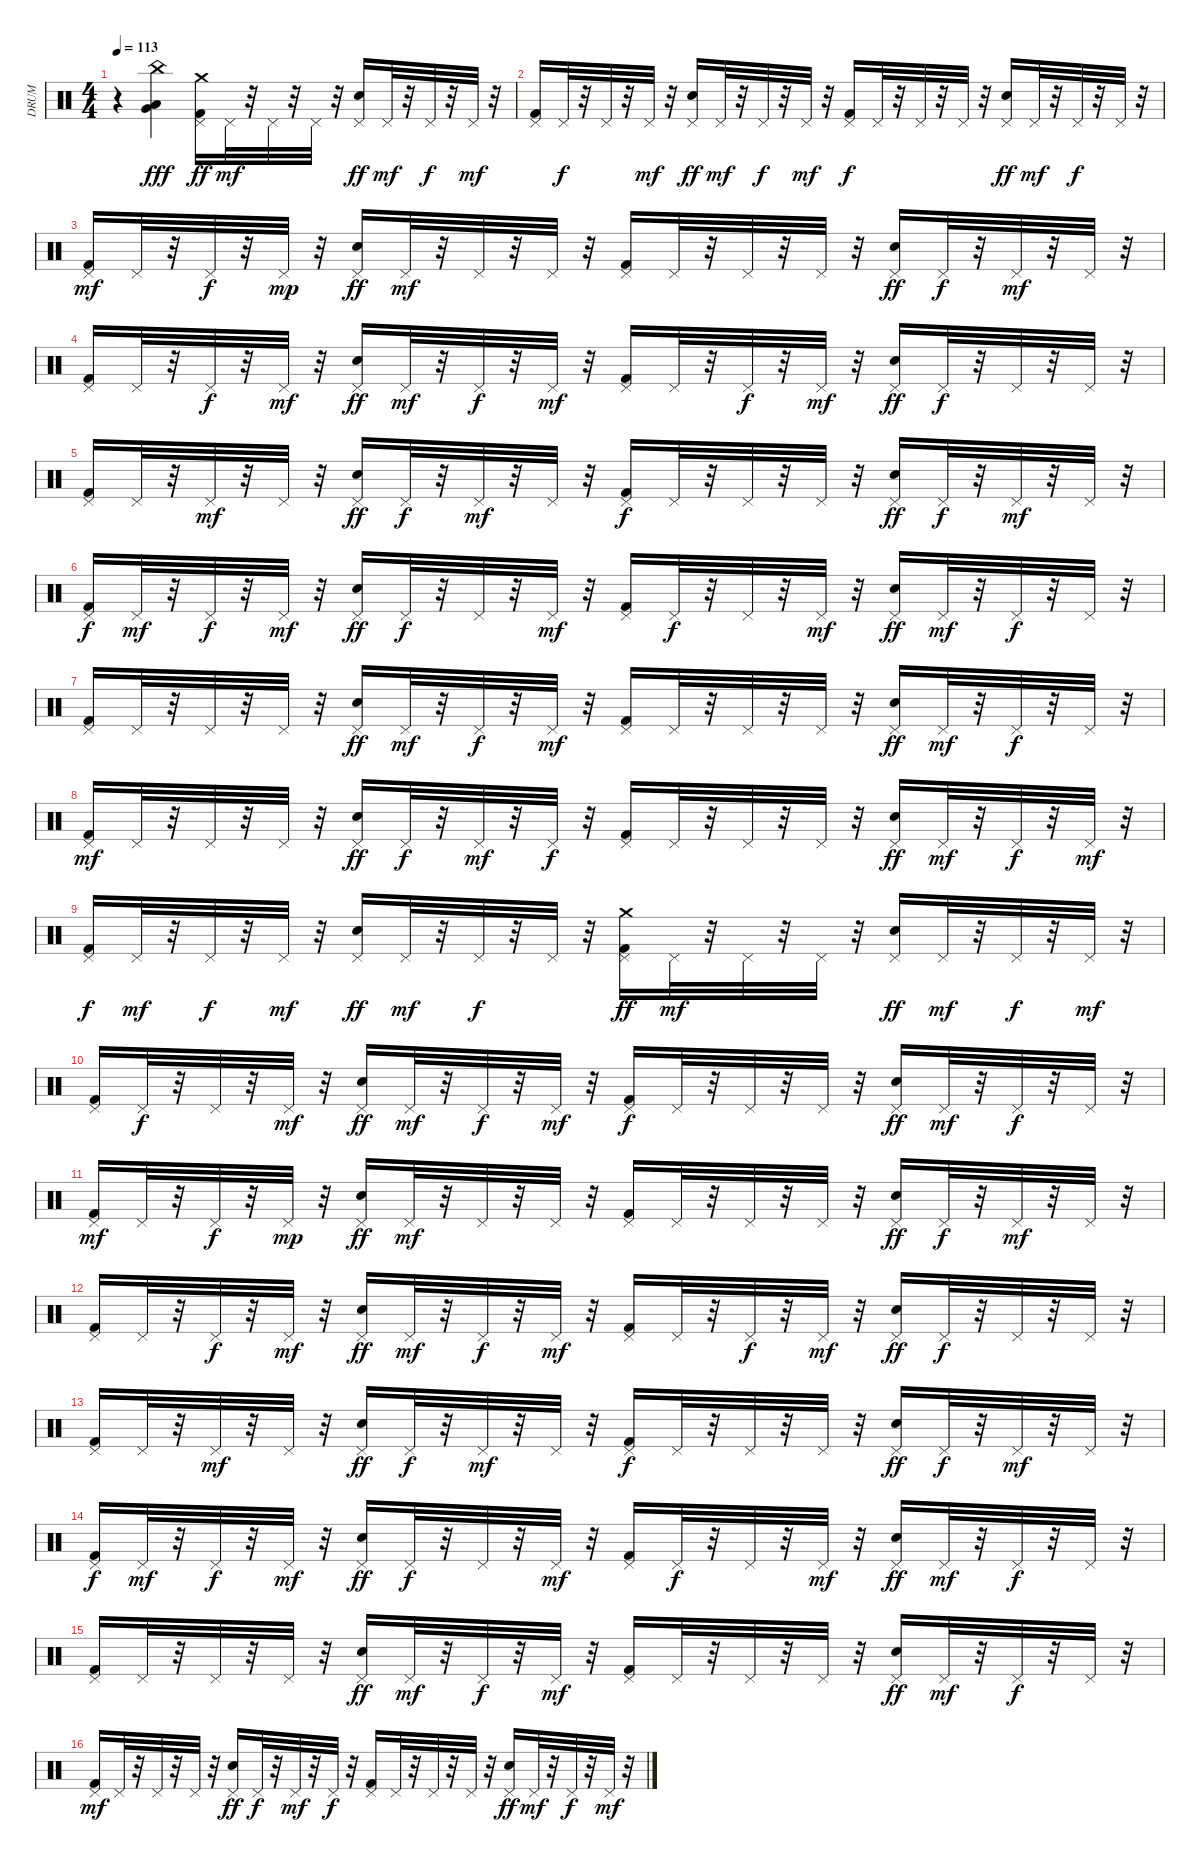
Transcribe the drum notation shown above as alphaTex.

\track ("DRUM" "DRUM") {instrument percussion}
\staff {score}
\articulation defaults
\ts (4 4)
\tempo 113
\clef neutral
\ks c
r.4{dy f} ("Very Low Tom (hit)" "Low Floor Tom (hit)" "China (hit)").4{dy fff} ("Crash medium (hit)" "Pedal Hi-Hat (hit)" "Kick (hit) 2").16{dy ff} "Pedal Hi-Hat (hit)".32{dy mf} r.32 "Pedal Hi-Hat (hit)".32 r.32 "Pedal Hi-Hat (hit)".32 r.32 ("Pedal Hi-Hat (hit)" "Snare (hit) 2").16{dy ff} "Pedal Hi-Hat (hit)".32{dy mf} r.32 "Pedal Hi-Hat (hit)".32{dy f} r.32 "Pedal Hi-Hat (hit)".32{dy mf} r.32 |
("Pedal Hi-Hat (hit)" "Kick (hit) 2").16 "Pedal Hi-Hat (hit)".32{dy f} r.32 "Pedal Hi-Hat (hit)".32 r.32 "Pedal Hi-Hat (hit)".32{dy mf} r.32 ("Pedal Hi-Hat (hit)" "Snare (hit) 2").16{dy ff} "Pedal Hi-Hat (hit)".32{dy mf} r.32 "Pedal Hi-Hat (hit)".32{dy f} r.32 "Pedal Hi-Hat (hit)".32{dy mf} r.32 ("Pedal Hi-Hat (hit)" "Kick (hit) 2").16{dy f} "Pedal Hi-Hat (hit)".32 r.32 "Pedal Hi-Hat (hit)".32 r.32 "Pedal Hi-Hat (hit)".32 r.32 ("Pedal Hi-Hat (hit)" "Snare (hit) 2").16{dy ff} "Pedal Hi-Hat (hit)".32{dy mf} r.32 "Pedal Hi-Hat (hit)".32{dy f} r.32 "Pedal Hi-Hat (hit)".32 r.32 |
("Pedal Hi-Hat (hit)" "Kick (hit) 2").16{dy mf} "Pedal Hi-Hat (hit)".32 r.32 "Pedal Hi-Hat (hit)".32{dy f} r.32 "Pedal Hi-Hat (hit)".32{dy mp} r.32 ("Pedal Hi-Hat (hit)" "Snare (hit) 2").16{dy ff} "Pedal Hi-Hat (hit)".32{dy mf} r.32 "Pedal Hi-Hat (hit)".32 r.32 "Pedal Hi-Hat (hit)".32 r.32 ("Pedal Hi-Hat (hit)" "Kick (hit) 2").16 "Pedal Hi-Hat (hit)".32 r.32 "Pedal Hi-Hat (hit)".32 r.32 "Pedal Hi-Hat (hit)".32 r.32 ("Pedal Hi-Hat (hit)" "Snare (hit) 2").16{dy ff} "Pedal Hi-Hat (hit)".32{dy f} r.32 "Pedal Hi-Hat (hit)".32{dy mf} r.32 "Pedal Hi-Hat (hit)".32 r.32 |
("Pedal Hi-Hat (hit)" "Kick (hit) 2").16 "Pedal Hi-Hat (hit)".32 r.32 "Pedal Hi-Hat (hit)".32{dy f} r.32 "Pedal Hi-Hat (hit)".32{dy mf} r.32 ("Pedal Hi-Hat (hit)" "Snare (hit) 2").16{dy ff} "Pedal Hi-Hat (hit)".32{dy mf} r.32 "Pedal Hi-Hat (hit)".32{dy f} r.32 "Pedal Hi-Hat (hit)".32{dy mf} r.32 ("Pedal Hi-Hat (hit)" "Kick (hit) 2").16 "Pedal Hi-Hat (hit)".32 r.32 "Pedal Hi-Hat (hit)".32{dy f} r.32 "Pedal Hi-Hat (hit)".32{dy mf} r.32 ("Pedal Hi-Hat (hit)" "Snare (hit) 2").16{dy ff} "Pedal Hi-Hat (hit)".32{dy f} r.32 "Pedal Hi-Hat (hit)".32 r.32 "Pedal Hi-Hat (hit)".32 r.32 |
("Pedal Hi-Hat (hit)" "Kick (hit) 2").16 "Pedal Hi-Hat (hit)".32 r.32 "Pedal Hi-Hat (hit)".32{dy mf} r.32 "Pedal Hi-Hat (hit)".32 r.32 ("Pedal Hi-Hat (hit)" "Snare (hit) 2").16{dy ff} "Pedal Hi-Hat (hit)".32{dy f} r.32 "Pedal Hi-Hat (hit)".32{dy mf} r.32 "Pedal Hi-Hat (hit)".32 r.32 ("Pedal Hi-Hat (hit)" "Kick (hit) 2").16{dy f} "Pedal Hi-Hat (hit)".32 r.32 "Pedal Hi-Hat (hit)".32 r.32 "Pedal Hi-Hat (hit)".32 r.32 ("Pedal Hi-Hat (hit)" "Snare (hit) 2").16{dy ff} "Pedal Hi-Hat (hit)".32{dy f} r.32 "Pedal Hi-Hat (hit)".32{dy mf} r.32 "Pedal Hi-Hat (hit)".32 r.32 |
("Pedal Hi-Hat (hit)" "Kick (hit) 2").16{dy f} "Pedal Hi-Hat (hit)".32{dy mf} r.32 "Pedal Hi-Hat (hit)".32{dy f} r.32 "Pedal Hi-Hat (hit)".32{dy mf} r.32 ("Pedal Hi-Hat (hit)" "Snare (hit) 2").16{dy ff} "Pedal Hi-Hat (hit)".32{dy f} r.32 "Pedal Hi-Hat (hit)".32 r.32 "Pedal Hi-Hat (hit)".32{dy mf} r.32 ("Pedal Hi-Hat (hit)" "Kick (hit) 2").16 "Pedal Hi-Hat (hit)".32{dy f} r.32 "Pedal Hi-Hat (hit)".32 r.32 "Pedal Hi-Hat (hit)".32{dy mf} r.32 ("Pedal Hi-Hat (hit)" "Snare (hit) 2").16{dy ff} "Pedal Hi-Hat (hit)".32{dy mf} r.32 "Pedal Hi-Hat (hit)".32{dy f} r.32 "Pedal Hi-Hat (hit)".32 r.32 |
("Pedal Hi-Hat (hit)" "Kick (hit) 2").16 "Pedal Hi-Hat (hit)".32 r.32 "Pedal Hi-Hat (hit)".32 r.32 "Pedal Hi-Hat (hit)".32 r.32 ("Pedal Hi-Hat (hit)" "Snare (hit) 2").16{dy ff} "Pedal Hi-Hat (hit)".32{dy mf} r.32 "Pedal Hi-Hat (hit)".32{dy f} r.32 "Pedal Hi-Hat (hit)".32{dy mf} r.32 ("Pedal Hi-Hat (hit)" "Kick (hit) 2").16 "Pedal Hi-Hat (hit)".32 r.32 "Pedal Hi-Hat (hit)".32 r.32 "Pedal Hi-Hat (hit)".32 r.32 ("Pedal Hi-Hat (hit)" "Snare (hit) 2").16{dy ff} "Pedal Hi-Hat (hit)".32{dy mf} r.32 "Pedal Hi-Hat (hit)".32{dy f} r.32 "Pedal Hi-Hat (hit)".32 r.32 |
("Pedal Hi-Hat (hit)" "Kick (hit) 2").16{dy mf} "Pedal Hi-Hat (hit)".32 r.32 "Pedal Hi-Hat (hit)".32 r.32 "Pedal Hi-Hat (hit)".32 r.32 ("Pedal Hi-Hat (hit)" "Snare (hit) 2").16{dy ff} "Pedal Hi-Hat (hit)".32{dy f} r.32 "Pedal Hi-Hat (hit)".32{dy mf} r.32 "Pedal Hi-Hat (hit)".32{dy f} r.32 ("Pedal Hi-Hat (hit)" "Kick (hit) 2").16 "Pedal Hi-Hat (hit)".32 r.32 "Pedal Hi-Hat (hit)".32 r.32 "Pedal Hi-Hat (hit)".32 r.32 ("Pedal Hi-Hat (hit)" "Snare (hit) 2").16{dy ff} "Pedal Hi-Hat (hit)".32{dy mf} r.32 "Pedal Hi-Hat (hit)".32{dy f} r.32 "Pedal Hi-Hat (hit)".32{dy mf} r.32 |
("Pedal Hi-Hat (hit)" "Kick (hit) 2").16{dy f} "Pedal Hi-Hat (hit)".32{dy mf} r.32 "Pedal Hi-Hat (hit)".32{dy f} r.32 "Pedal Hi-Hat (hit)".32{dy mf} r.32 ("Pedal Hi-Hat (hit)" "Snare (hit) 2").16{dy ff} "Pedal Hi-Hat (hit)".32{dy mf} r.32 "Pedal Hi-Hat (hit)".32{dy f} r.32 "Pedal Hi-Hat (hit)".32 r.32 ("Crash medium (hit)" "Pedal Hi-Hat (hit)" "Kick (hit) 2").16{dy ff} "Pedal Hi-Hat (hit)".32{dy mf} r.32 "Pedal Hi-Hat (hit)".32 r.32 "Pedal Hi-Hat (hit)".32 r.32 ("Pedal Hi-Hat (hit)" "Snare (hit) 2").16{dy ff} "Pedal Hi-Hat (hit)".32{dy mf} r.32 "Pedal Hi-Hat (hit)".32{dy f} r.32 "Pedal Hi-Hat (hit)".32{dy mf} r.32 |
("Pedal Hi-Hat (hit)" "Kick (hit) 2").16 "Pedal Hi-Hat (hit)".32{dy f} r.32 "Pedal Hi-Hat (hit)".32 r.32 "Pedal Hi-Hat (hit)".32{dy mf} r.32 ("Pedal Hi-Hat (hit)" "Snare (hit) 2").16{dy ff} "Pedal Hi-Hat (hit)".32{dy mf} r.32 "Pedal Hi-Hat (hit)".32{dy f} r.32 "Pedal Hi-Hat (hit)".32{dy mf} r.32 ("Pedal Hi-Hat (hit)" "Kick (hit) 2").16{dy f} "Pedal Hi-Hat (hit)".32 r.32 "Pedal Hi-Hat (hit)".32 r.32 "Pedal Hi-Hat (hit)".32 r.32 ("Pedal Hi-Hat (hit)" "Snare (hit) 2").16{dy ff} "Pedal Hi-Hat (hit)".32{dy mf} r.32 "Pedal Hi-Hat (hit)".32{dy f} r.32 "Pedal Hi-Hat (hit)".32 r.32 |
("Pedal Hi-Hat (hit)" "Kick (hit) 2").16{dy mf} "Pedal Hi-Hat (hit)".32 r.32 "Pedal Hi-Hat (hit)".32{dy f} r.32 "Pedal Hi-Hat (hit)".32{dy mp} r.32 ("Pedal Hi-Hat (hit)" "Snare (hit) 2").16{dy ff} "Pedal Hi-Hat (hit)".32{dy mf} r.32 "Pedal Hi-Hat (hit)".32 r.32 "Pedal Hi-Hat (hit)".32 r.32 ("Pedal Hi-Hat (hit)" "Kick (hit) 2").16 "Pedal Hi-Hat (hit)".32 r.32 "Pedal Hi-Hat (hit)".32 r.32 "Pedal Hi-Hat (hit)".32 r.32 ("Pedal Hi-Hat (hit)" "Snare (hit) 2").16{dy ff} "Pedal Hi-Hat (hit)".32{dy f} r.32 "Pedal Hi-Hat (hit)".32{dy mf} r.32 "Pedal Hi-Hat (hit)".32 r.32 |
("Pedal Hi-Hat (hit)" "Kick (hit) 2").16 "Pedal Hi-Hat (hit)".32 r.32 "Pedal Hi-Hat (hit)".32{dy f} r.32 "Pedal Hi-Hat (hit)".32{dy mf} r.32 ("Pedal Hi-Hat (hit)" "Snare (hit) 2").16{dy ff} "Pedal Hi-Hat (hit)".32{dy mf} r.32 "Pedal Hi-Hat (hit)".32{dy f} r.32 "Pedal Hi-Hat (hit)".32{dy mf} r.32 ("Pedal Hi-Hat (hit)" "Kick (hit) 2").16 "Pedal Hi-Hat (hit)".32 r.32 "Pedal Hi-Hat (hit)".32{dy f} r.32 "Pedal Hi-Hat (hit)".32{dy mf} r.32 ("Pedal Hi-Hat (hit)" "Snare (hit) 2").16{dy ff} "Pedal Hi-Hat (hit)".32{dy f} r.32 "Pedal Hi-Hat (hit)".32 r.32 "Pedal Hi-Hat (hit)".32 r.32 |
("Pedal Hi-Hat (hit)" "Kick (hit) 2").16 "Pedal Hi-Hat (hit)".32 r.32 "Pedal Hi-Hat (hit)".32{dy mf} r.32 "Pedal Hi-Hat (hit)".32 r.32 ("Pedal Hi-Hat (hit)" "Snare (hit) 2").16{dy ff} "Pedal Hi-Hat (hit)".32{dy f} r.32 "Pedal Hi-Hat (hit)".32{dy mf} r.32 "Pedal Hi-Hat (hit)".32 r.32 ("Pedal Hi-Hat (hit)" "Kick (hit) 2").16{dy f} "Pedal Hi-Hat (hit)".32 r.32 "Pedal Hi-Hat (hit)".32 r.32 "Pedal Hi-Hat (hit)".32 r.32 ("Pedal Hi-Hat (hit)" "Snare (hit) 2").16{dy ff} "Pedal Hi-Hat (hit)".32{dy f} r.32 "Pedal Hi-Hat (hit)".32{dy mf} r.32 "Pedal Hi-Hat (hit)".32 r.32 |
("Pedal Hi-Hat (hit)" "Kick (hit) 2").16{dy f} "Pedal Hi-Hat (hit)".32{dy mf} r.32 "Pedal Hi-Hat (hit)".32{dy f} r.32 "Pedal Hi-Hat (hit)".32{dy mf} r.32 ("Pedal Hi-Hat (hit)" "Snare (hit) 2").16{dy ff} "Pedal Hi-Hat (hit)".32{dy f} r.32 "Pedal Hi-Hat (hit)".32 r.32 "Pedal Hi-Hat (hit)".32{dy mf} r.32 ("Pedal Hi-Hat (hit)" "Kick (hit) 2").16 "Pedal Hi-Hat (hit)".32{dy f} r.32 "Pedal Hi-Hat (hit)".32 r.32 "Pedal Hi-Hat (hit)".32{dy mf} r.32 ("Pedal Hi-Hat (hit)" "Snare (hit) 2").16{dy ff} "Pedal Hi-Hat (hit)".32{dy mf} r.32 "Pedal Hi-Hat (hit)".32{dy f} r.32 "Pedal Hi-Hat (hit)".32 r.32 |
("Pedal Hi-Hat (hit)" "Kick (hit) 2").16 "Pedal Hi-Hat (hit)".32 r.32 "Pedal Hi-Hat (hit)".32 r.32 "Pedal Hi-Hat (hit)".32 r.32 ("Pedal Hi-Hat (hit)" "Snare (hit) 2").16{dy ff} "Pedal Hi-Hat (hit)".32{dy mf} r.32 "Pedal Hi-Hat (hit)".32{dy f} r.32 "Pedal Hi-Hat (hit)".32{dy mf} r.32 ("Pedal Hi-Hat (hit)" "Kick (hit) 2").16 "Pedal Hi-Hat (hit)".32 r.32 "Pedal Hi-Hat (hit)".32 r.32 "Pedal Hi-Hat (hit)".32 r.32 ("Pedal Hi-Hat (hit)" "Snare (hit) 2").16{dy ff} "Pedal Hi-Hat (hit)".32{dy mf} r.32 "Pedal Hi-Hat (hit)".32{dy f} r.32 "Pedal Hi-Hat (hit)".32 r.32 |
("Pedal Hi-Hat (hit)" "Kick (hit) 2").16{dy mf} "Pedal Hi-Hat (hit)".32 r.32 "Pedal Hi-Hat (hit)".32 r.32 "Pedal Hi-Hat (hit)".32 r.32 ("Pedal Hi-Hat (hit)" "Snare (hit) 2").16{dy ff} "Pedal Hi-Hat (hit)".32{dy f} r.32 "Pedal Hi-Hat (hit)".32{dy mf} r.32 "Pedal Hi-Hat (hit)".32{dy f} r.32 ("Pedal Hi-Hat (hit)" "Kick (hit) 2").16 "Pedal Hi-Hat (hit)".32 r.32 "Pedal Hi-Hat (hit)".32 r.32 "Pedal Hi-Hat (hit)".32 r.32 ("Pedal Hi-Hat (hit)" "Snare (hit) 2").16{dy ff} "Pedal Hi-Hat (hit)".32{dy mf} r.32 "Pedal Hi-Hat (hit)".32{dy f} r.32 "Pedal Hi-Hat (hit)".32{dy mf} r.32
